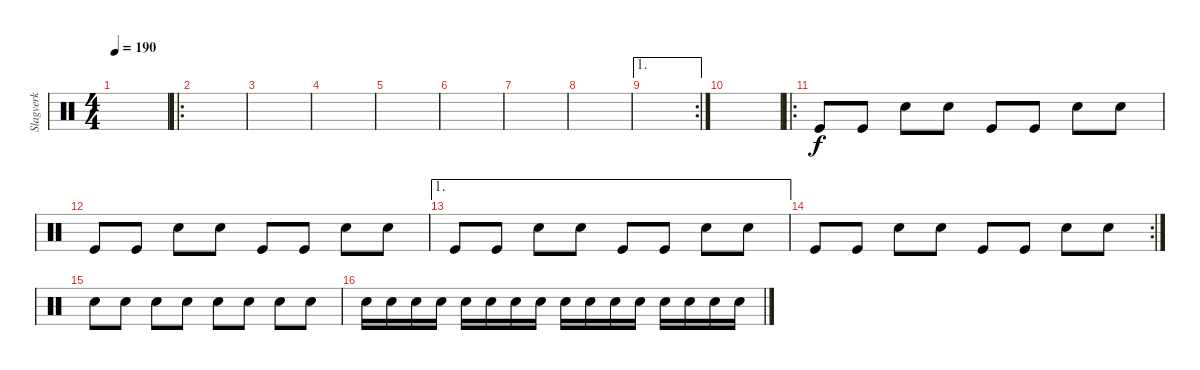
\track ("Slagverk" "Slagverk") {instrument percussion}
\staff {score}
\articulation defaults
\ts (4 4)
\tempo 190
\clef neutral
\ks c
|
\ro
|
|
|
|
|
|
|
\ae 1
\rc 2
|
|
\ro "Kick (hit)".8 "Kick (hit)".8 "Snare (hit) 2".8 "Snare (hit) 2".8 "Kick (hit)".8 "Kick (hit)".8 "Snare (hit) 2".8 "Snare (hit) 2".8
|
"Kick (hit)".8 "Kick (hit)".8 "Snare (hit) 2".8 "Snare (hit) 2".8 "Kick (hit)".8 "Kick (hit)".8 "Snare (hit) 2".8 "Snare (hit) 2".8 |
\ae 1 "Kick (hit)".8 "Kick (hit)".8 "Snare (hit) 2".8 "Snare (hit) 2".8 "Kick (hit)".8 "Kick (hit)".8 "Snare (hit) 2".8 "Snare (hit) 2".8
|
\rc 2 "Kick (hit)".8 "Kick (hit)".8 "Snare (hit) 2".8 "Snare (hit) 2".8 "Kick (hit)".8 "Kick (hit)".8 "Snare (hit) 2".8 "Snare (hit) 2".8
|
"Snare (hit) 2".8 "Snare (hit) 2".8 "Snare (hit) 2".8 "Snare (hit) 2".8 "Snare (hit) 2".8 "Snare (hit) 2".8 "Snare (hit) 2".8 "Snare (hit) 2".8 |
"Snare (hit) 2".16 "Snare (hit) 2".16 "Snare (hit) 2".16 "Snare (hit) 2".16 "Snare (hit) 2".16 "Snare (hit) 2".16 "Snare (hit) 2".16 "Snare (hit) 2".16 "Snare (hit) 2".16 "Snare (hit) 2".16 "Snare (hit) 2".16 "Snare (hit) 2".16 "Snare (hit) 2".16 "Snare (hit) 2".16 "Snare (hit) 2".16 "Snare (hit) 2".16
